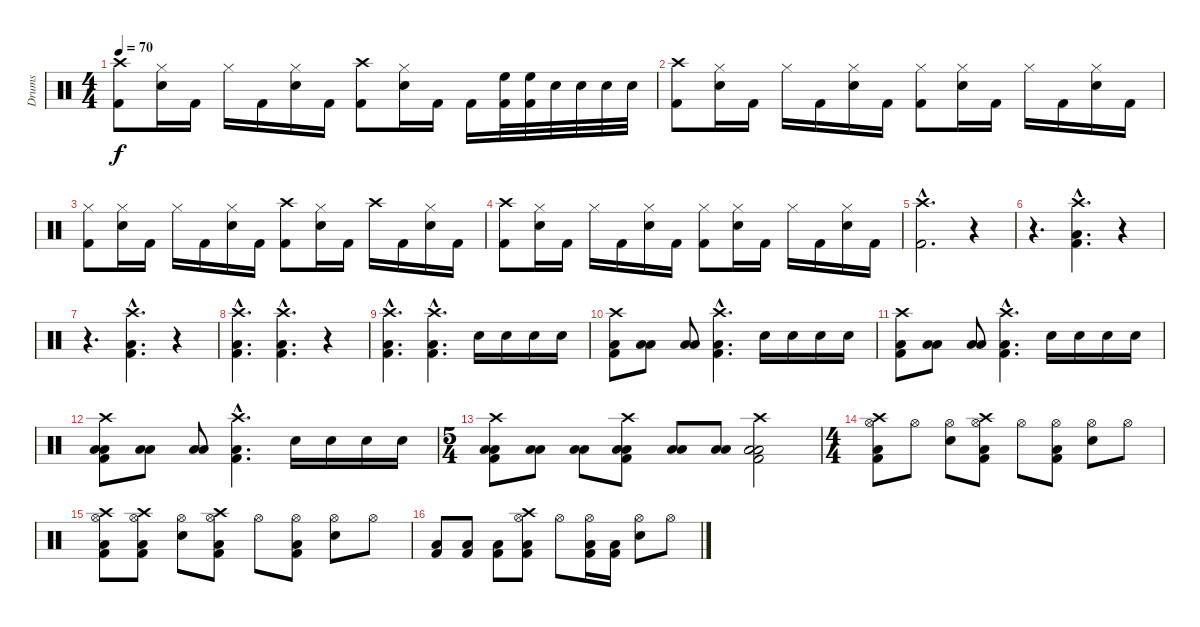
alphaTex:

\track ("Drums" "Drums") {instrument percussion}
\staff {score}
\articulation defaults
\ts (4 4)
\tempo 70
\clef neutral
\ks c
("Crash high (hit)" "Kick (hit) 2").8{dy f} ("Hi-Hat (closed)" "Snare (hit) 2").16 "Kick (hit) 2".16 "Hi-Hat (closed)".16 "Kick (hit) 2".16 ("Hi-Hat (closed)" "Snare (hit) 2").16 "Kick (hit) 2".16 ("Crash high (hit)" "Kick (hit) 2").8 ("Hi-Hat (closed)" "Snare (hit) 2").16 "Kick (hit) 2".16 "Kick (hit) 2".16 ("High Floor Tom (hit)" "Kick (hit) 2").32 ("High Floor Tom (hit)" "Kick (hit) 2").32 "Snare (hit) 2".32 "Snare (hit) 2".32 "Snare (hit) 2".32 "Snare (hit) 2".32 |
("Crash high (hit)" "Kick (hit) 2").8 ("Hi-Hat (closed)" "Snare (hit) 2").16 "Kick (hit) 2".16 "Hi-Hat (closed)".16 "Kick (hit) 2".16 ("Hi-Hat (closed)" "Snare (hit) 2").16 "Kick (hit) 2".16 ("Hi-Hat (closed)" "Kick (hit) 2").8 ("Hi-Hat (closed)" "Snare (hit) 2").16 "Kick (hit) 2".16 "Hi-Hat (closed)".16 "Kick (hit) 2".16 ("Hi-Hat (closed)" "Snare (hit) 2").16 "Kick (hit) 2".16 |
("Hi-Hat (closed)" "Kick (hit) 2").8 ("Hi-Hat (closed)" "Snare (hit) 2").16 "Kick (hit) 2".16 "Hi-Hat (closed)".16 "Kick (hit) 2".16 ("Hi-Hat (closed)" "Snare (hit) 2").16 "Kick (hit) 2".16 ("Crash high (hit)" "Kick (hit) 2").8 ("Hi-Hat (closed)" "Snare (hit) 2").16 "Kick (hit) 2".16 "Crash high (hit)".16 "Kick (hit) 2".16 ("Hi-Hat (closed)" "Snare (hit) 2").16 "Kick (hit) 2".16 |
("Crash high (hit)" "Kick (hit) 2").8 ("Hi-Hat (closed)" "Snare (hit) 2").16 "Kick (hit) 2".16 "Hi-Hat (closed)".16 "Kick (hit) 2".16 ("Hi-Hat (closed)" "Snare (hit) 2").16 "Kick (hit) 2".16 ("Hi-Hat (closed)" "Kick (hit) 2").8 ("Hi-Hat (closed)" "Snare (hit) 2").16 "Kick (hit) 2".16 "Hi-Hat (closed)".16 "Kick (hit) 2".16 ("Hi-Hat (closed)" "Snare (hit) 2").16 "Kick (hit) 2".16 |
("Crash high (hit)"{hac} "Kick (hit) 2"{hac}).2{d} r.4 |
r.4{d} ("Crash high (hit)"{hac} "Low Floor Tom (hit)"{hac} "Kick (hit) 2"{hac}).4{d} r.4 |
r.4{d} ("Crash high (hit)"{hac} "Low Floor Tom (hit)"{hac} "Kick (hit) 2"{hac}).4{d} r.4 |
("Crash high (hit)"{hac} "Low Floor Tom (hit)"{hac} "Kick (hit) 2"{hac}).4{d} ("Crash high (hit)"{hac} "Low Floor Tom (hit)"{hac} "Kick (hit) 2"{hac}).4{d} r.4 |
("Crash high (hit)"{hac} "Low Floor Tom (hit)"{hac} "Kick (hit) 2"{hac}).4{d} ("Crash high (hit)"{hac} "Low Floor Tom (hit)"{hac} "Kick (hit) 2"{hac}).4{d} "Snare (hit) 2".16 "Snare (hit) 2".16 "Snare (hit) 2".16 "Snare (hit) 2".16 |
("Crash high (hit)" "Low Floor Tom (hit)" "Kick (hit) 2").8 ("Low Floor Tom (hit)" "Low Tom (hit)").8 ("Low Floor Tom (hit)" "Low Tom (hit)").8 ("Crash high (hit)"{hac} "Low Floor Tom (hit)"{hac} "Kick (hit) 2"{hac}).4{d} "Snare (hit) 2".16 "Snare (hit) 2".16 "Snare (hit) 2".16 "Snare (hit) 2".16 |
("Crash high (hit)" "Low Floor Tom (hit)" "Kick (hit) 2").8 ("Low Floor Tom (hit)" "Low Tom (hit)").8 ("Low Floor Tom (hit)" "Low Tom (hit)").8 ("Crash high (hit)"{hac} "Low Floor Tom (hit)"{hac} "Kick (hit) 2"{hac}).4{d} "Snare (hit) 2".16 "Snare (hit) 2".16 "Snare (hit) 2".16 "Snare (hit) 2".16 |
("Crash high (hit)" "Low Floor Tom (hit)" "Low Tom (hit)" "Kick (hit) 2").8 ("Low Floor Tom (hit)" "Low Tom (hit)").8 ("Low Floor Tom (hit)" "Low Tom (hit)").8 ("Crash high (hit)"{hac} "Low Floor Tom (hit)"{hac} "Kick (hit) 2"{hac}).4{d} "Snare (hit) 2".16 "Snare (hit) 2".16 "Snare (hit) 2".16 "Snare (hit) 2".16 |
\ts (5 4)
("Crash high (hit)" "Low Floor Tom (hit)" "Low Tom (hit)" "Kick (hit) 2").8 ("Low Floor Tom (hit)" "Low Tom (hit)").8 ("Low Floor Tom (hit)" "Low Tom (hit)").8 ("Crash high (hit)" "Low Floor Tom (hit)" "Low Tom (hit)" "Kick (hit) 2").8 ("Low Floor Tom (hit)" "Low Tom (hit)").8 ("Low Floor Tom (hit)" "Low Tom (hit)").8 ("Crash high (hit)" "Low Floor Tom (hit)" "Low Tom (hit)" "Kick (hit) 2").2 |
\ts (4 4)
("Crash high (hit)" "Hi-Hat (open)" "Low Floor Tom (hit)" "Kick (hit) 2").8 "Hi-Hat (open)".8 ("Hi-Hat (open)" "Snare (hit) 2").8 ("Crash high (hit)" "Hi-Hat (open)" "Low Floor Tom (hit)" "Kick (hit) 2").8 "Hi-Hat (open)".8 ("Hi-Hat (open)" "Low Floor Tom (hit)" "Kick (hit) 2").8 ("Hi-Hat (open)" "Snare (hit) 2").8 "Hi-Hat (open)".8 |
("Crash high (hit)" "Hi-Hat (open)" "Low Floor Tom (hit)" "Kick (hit) 2").8 ("Crash high (hit)" "Hi-Hat (open)" "Low Floor Tom (hit)" "Kick (hit) 2").8 ("Hi-Hat (open)" "Snare (hit) 2").8 ("Crash high (hit)" "Hi-Hat (open)" "Low Floor Tom (hit)" "Kick (hit) 2").8 "Hi-Hat (open)".8 ("Hi-Hat (open)" "Low Floor Tom (hit)" "Kick (hit) 2").8 ("Hi-Hat (open)" "Snare (hit) 2").8 "Hi-Hat (open)".8 |
("Low Floor Tom (hit)" "Kick (hit) 2").8 ("Low Floor Tom (hit)" "Kick (hit) 2").8 ("Low Floor Tom (hit)" "Kick (hit) 2").8 ("Crash high (hit)" "Hi-Hat (open)" "Low Floor Tom (hit)" "Kick (hit) 2").8 "Hi-Hat (open)".8 ("Hi-Hat (open)" "Low Floor Tom (hit)" "Kick (hit) 2").16 ("Low Floor Tom (hit)" "Kick (hit) 2").16 ("Hi-Hat (open)" "Snare (hit) 2").8 "Hi-Hat (open)".8
